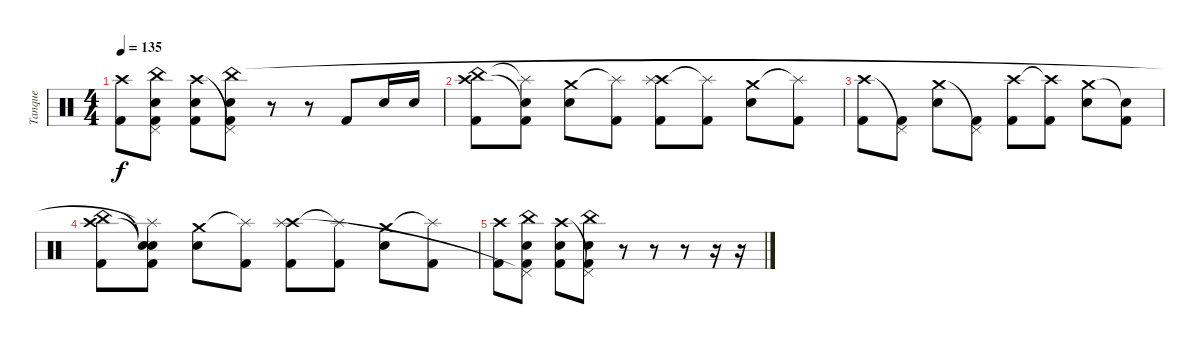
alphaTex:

\track ("Tanque" "Tanque") {instrument percussion}
\staff {score}
\articulation defaults
\ts (4 4)
\tempo 135
\clef neutral
\ks c
("Kick (hit) 2" "Crash high (hit)").8{dy f} ("Kick (hit) 2" "Snare (hit) 2" "Pedal Hi-Hat (hit)"{t} "China (hit)").8 ("Kick (hit) 2" "Snare (hit) 2" "Crash high (hit)").8 ("Kick (hit) 2" "Snare (hit) 2" "Pedal Hi-Hat (hit)"{t} "China (hit)").8 r.8 r.8 "Kick (hit) 2".8 "Snare (hit) 2".16 "Snare (hit) 2".16 |
("Kick (hit) 2" "Crash high (hit)" "China (hit)").8 ("Kick (hit) 2" "Snare (hit)"{t} "Splash (hit)"{t}).8 ("Snare (hit) 2" "Crash medium (hit)").8 ("Kick (hit) 2" "Splash (hit)"{t}).8 ("Kick (hit) 2" "Crash high (hit)" "Splash (hit)").8 ("Kick (hit) 2" "Splash (hit)"{t}).8 ("Snare (hit) 2" "Crash medium (hit)").8 ("Kick (hit) 2" "Splash (hit)"{t}).8 |
("Kick (hit) 2" "Crash high (hit)").8 ("Kick (hit) 2" "Pedal Hi-Hat (hit)"{t}).8 ("Snare (hit) 2" "Crash medium (hit)").8 ("Kick (hit) 2" "Pedal Hi-Hat (hit)"{t}).8 ("Kick (hit) 2" "Crash high (hit)").8 ("Kick (hit) 2" "Crash high (hit)"{t}).8 ("Snare (hit) 2" "Crash medium (hit)").8 ("Kick (hit) 2" "Snare (hit)"{t}).8 |
("Kick (hit) 2" "Crash high (hit)" "China (hit)").8 ("Kick (hit) 2" "Snare (hit)"{t} "Snare (hit)"{t} "Splash (hit)"{t}).8 ("Snare (hit) 2" "Crash medium (hit)").8 ("Kick (hit) 2" "Splash (hit)"{t}).8 ("Kick (hit) 2" "Crash high (hit)" "Splash (hit)").8 ("Kick (hit) 2" "Splash (hit)"{t}).8 ("Snare (hit) 2" "Crash medium (hit)").8 ("Kick (hit) 2" "Splash (hit)"{t}).8 |
("Kick (hit) 2" "Crash high (hit)").8 ("Kick (hit) 2" "Snare (hit) 2" "Pedal Hi-Hat (hit)"{t} "China (hit)").8 ("Kick (hit) 2" "Snare (hit) 2" "Crash high (hit)").8 ("Kick (hit) 2" "Snare (hit) 2" "Pedal Hi-Hat (hit)"{t} "China (hit)").8 r.8 r.8 r.8 r.16 r.16
